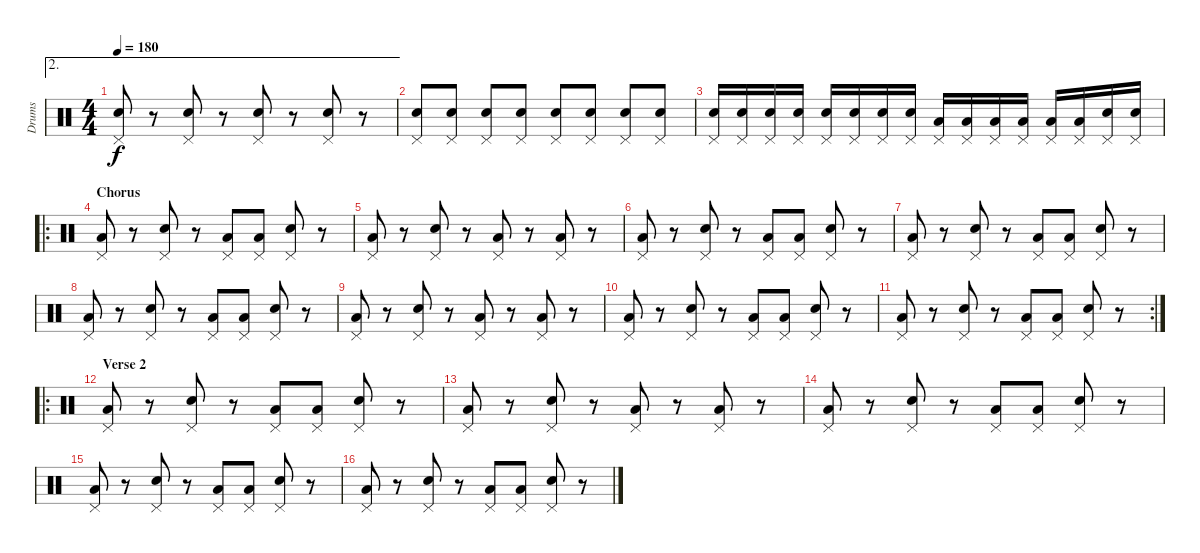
\track ("Drums" "Drums") {instrument percussion}
\staff {score}
\articulation defaults
\ae 2
\ts (4 4)
\tempo 180
\clef neutral
\ks c
("Electric Snare (hit)" "Pedal Hi-Hat (hit)").8{dy f} r.8 ("Electric Snare (hit)" "Pedal Hi-Hat (hit)").8 r.8 ("Electric Snare (hit)" "Pedal Hi-Hat (hit)").8 r.8 ("Electric Snare (hit)" "Pedal Hi-Hat (hit)").8 r.8 |
("Electric Snare (hit)" "Pedal Hi-Hat (hit)").8 ("Electric Snare (hit)" "Pedal Hi-Hat (hit)").8 ("Electric Snare (hit)" "Pedal Hi-Hat (hit)").8 ("Electric Snare (hit)" "Pedal Hi-Hat (hit)").8 ("Electric Snare (hit)" "Pedal Hi-Hat (hit)").8 ("Electric Snare (hit)" "Pedal Hi-Hat (hit)").8 ("Electric Snare (hit)" "Pedal Hi-Hat (hit)").8 ("Electric Snare (hit)" "Pedal Hi-Hat (hit)").8 |
("Electric Snare (hit)" "Pedal Hi-Hat (hit)").16 ("Electric Snare (hit)" "Pedal Hi-Hat (hit)").16 ("Electric Snare (hit)" "Pedal Hi-Hat (hit)").16 ("Electric Snare (hit)" "Pedal Hi-Hat (hit)").16 ("Electric Snare (hit)" "Pedal Hi-Hat (hit)").16 ("Electric Snare (hit)" "Pedal Hi-Hat (hit)").16 ("Electric Snare (hit)" "Pedal Hi-Hat (hit)").16 ("Electric Snare (hit)" "Pedal Hi-Hat (hit)").16 ("Low Tom (hit)" "Pedal Hi-Hat (hit)").16 ("Low Tom (hit)" "Pedal Hi-Hat (hit)").16 ("Low Tom (hit)" "Pedal Hi-Hat (hit)").16 ("Low Tom (hit)" "Pedal Hi-Hat (hit)").16 ("Low Tom (hit)" "Pedal Hi-Hat (hit)").16 ("Low Tom (hit)" "Pedal Hi-Hat (hit)").16 ("Electric Snare (hit)" "Pedal Hi-Hat (hit)").16 ("Electric Snare (hit)" "Pedal Hi-Hat (hit)").16 |
\ro
\section ("" "Chorus")
("Low Tom (hit)" "Pedal Hi-Hat (hit)").8 r.8 ("Electric Snare (hit)" "Pedal Hi-Hat (hit)").8 r.8 ("Low Tom (hit)" "Pedal Hi-Hat (hit)").8 ("Low Tom (hit)" "Pedal Hi-Hat (hit)").8 ("Electric Snare (hit)" "Pedal Hi-Hat (hit)").8 r.8 |
("Low Tom (hit)" "Pedal Hi-Hat (hit)").8 r.8 ("Electric Snare (hit)" "Pedal Hi-Hat (hit)").8 r.8 ("Low Tom (hit)" "Pedal Hi-Hat (hit)").8 r.8 ("Low Tom (hit)" "Pedal Hi-Hat (hit)").8 r.8 |
("Low Tom (hit)" "Pedal Hi-Hat (hit)").8 r.8 ("Electric Snare (hit)" "Pedal Hi-Hat (hit)").8 r.8 ("Low Tom (hit)" "Pedal Hi-Hat (hit)").8 ("Low Tom (hit)" "Pedal Hi-Hat (hit)").8 ("Electric Snare (hit)" "Pedal Hi-Hat (hit)").8 r.8 |
("Low Tom (hit)" "Pedal Hi-Hat (hit)").8 r.8 ("Electric Snare (hit)" "Pedal Hi-Hat (hit)").8 r.8 ("Low Tom (hit)" "Pedal Hi-Hat (hit)").8 ("Low Tom (hit)" "Pedal Hi-Hat (hit)").8 ("Electric Snare (hit)" "Pedal Hi-Hat (hit)").8 r.8 |
("Low Tom (hit)" "Pedal Hi-Hat (hit)").8 r.8 ("Electric Snare (hit)" "Pedal Hi-Hat (hit)").8 r.8 ("Low Tom (hit)" "Pedal Hi-Hat (hit)").8 ("Low Tom (hit)" "Pedal Hi-Hat (hit)").8 ("Electric Snare (hit)" "Pedal Hi-Hat (hit)").8 r.8 |
("Low Tom (hit)" "Pedal Hi-Hat (hit)").8 r.8 ("Electric Snare (hit)" "Pedal Hi-Hat (hit)").8 r.8 ("Low Tom (hit)" "Pedal Hi-Hat (hit)").8 r.8 ("Low Tom (hit)" "Pedal Hi-Hat (hit)").8 r.8 |
("Low Tom (hit)" "Pedal Hi-Hat (hit)").8 r.8 ("Electric Snare (hit)" "Pedal Hi-Hat (hit)").8 r.8 ("Low Tom (hit)" "Pedal Hi-Hat (hit)").8 ("Low Tom (hit)" "Pedal Hi-Hat (hit)").8 ("Electric Snare (hit)" "Pedal Hi-Hat (hit)").8 r.8 |
\rc 2
("Low Tom (hit)" "Pedal Hi-Hat (hit)").8 r.8 ("Electric Snare (hit)" "Pedal Hi-Hat (hit)").8 r.8 ("Low Tom (hit)" "Pedal Hi-Hat (hit)").8 ("Low Tom (hit)" "Pedal Hi-Hat (hit)").8 ("Electric Snare (hit)" "Pedal Hi-Hat (hit)").8 r.8 |
\ro
\section ("" "Verse 2")
("Low Tom (hit)" "Pedal Hi-Hat (hit)").8 r.8 ("Electric Snare (hit)" "Pedal Hi-Hat (hit)").8 r.8 ("Low Tom (hit)" "Pedal Hi-Hat (hit)").8 ("Low Tom (hit)" "Pedal Hi-Hat (hit)").8 ("Electric Snare (hit)" "Pedal Hi-Hat (hit)").8 r.8 |
("Low Tom (hit)" "Pedal Hi-Hat (hit)").8 r.8 ("Electric Snare (hit)" "Pedal Hi-Hat (hit)").8 r.8 ("Low Tom (hit)" "Pedal Hi-Hat (hit)").8 r.8 ("Low Tom (hit)" "Pedal Hi-Hat (hit)").8 r.8 |
("Low Tom (hit)" "Pedal Hi-Hat (hit)").8 r.8 ("Electric Snare (hit)" "Pedal Hi-Hat (hit)").8 r.8 ("Low Tom (hit)" "Pedal Hi-Hat (hit)").8 ("Low Tom (hit)" "Pedal Hi-Hat (hit)").8 ("Electric Snare (hit)" "Pedal Hi-Hat (hit)").8 r.8 |
("Low Tom (hit)" "Pedal Hi-Hat (hit)").8 r.8 ("Electric Snare (hit)" "Pedal Hi-Hat (hit)").8 r.8 ("Low Tom (hit)" "Pedal Hi-Hat (hit)").8 ("Low Tom (hit)" "Pedal Hi-Hat (hit)").8 ("Electric Snare (hit)" "Pedal Hi-Hat (hit)").8 r.8 |
("Low Tom (hit)" "Pedal Hi-Hat (hit)").8 r.8 ("Electric Snare (hit)" "Pedal Hi-Hat (hit)").8 r.8 ("Low Tom (hit)" "Pedal Hi-Hat (hit)").8 ("Low Tom (hit)" "Pedal Hi-Hat (hit)").8 ("Electric Snare (hit)" "Pedal Hi-Hat (hit)").8 r.8
